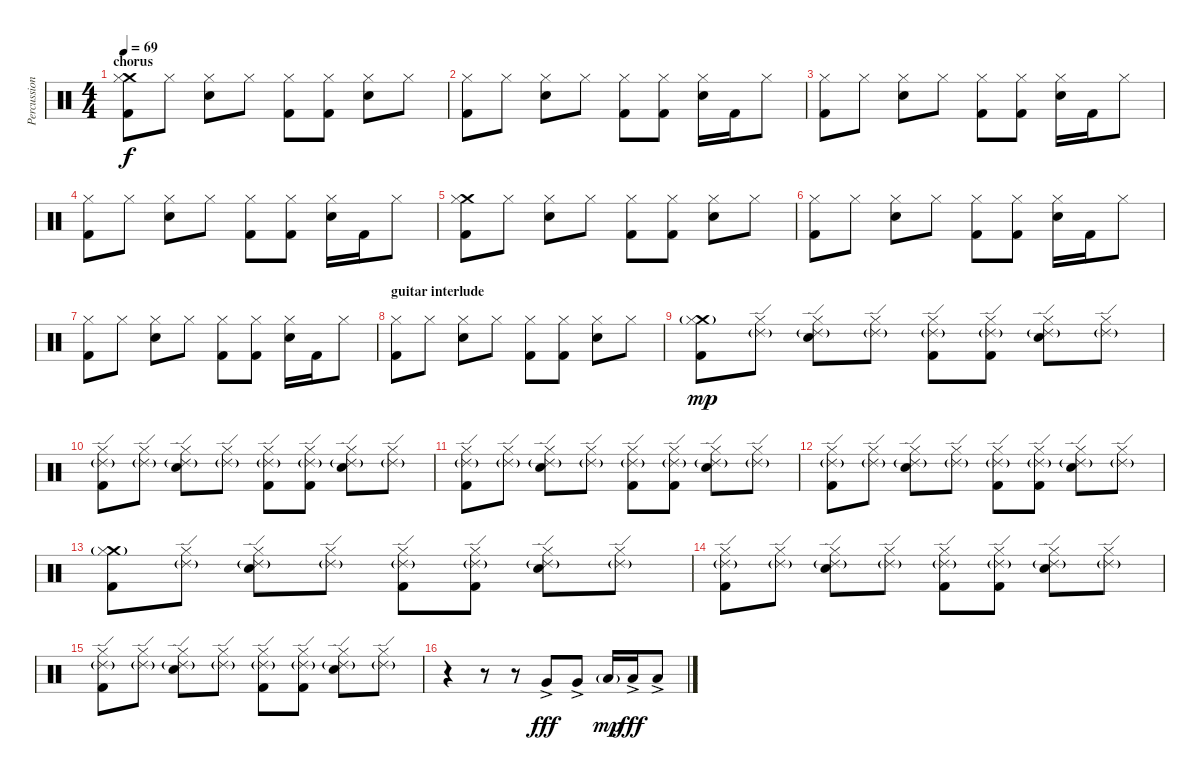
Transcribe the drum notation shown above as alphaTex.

\track ("Percussion" "Percussion") {instrument percussion}
\staff {score}
\articulation defaults
\ts (4 4)
\section ("" "chorus ")
\tempo 69
\clef neutral
\ks c
("Crash medium (hit)" "Hi-Hat (closed)" "Kick (hit) 2").8{dy f} "Hi-Hat (closed)".8 ("Hi-Hat (closed)" "Electric Snare (hit)").8 "Hi-Hat (closed)".8 ("Hi-Hat (closed)" "Kick (hit) 2").8 ("Hi-Hat (closed)" "Kick (hit) 2").8 ("Hi-Hat (closed)" "Electric Snare (hit)").8 "Hi-Hat (closed)".8 |
("Hi-Hat (closed)" "Kick (hit) 2").8 "Hi-Hat (closed)".8 ("Hi-Hat (closed)" "Electric Snare (hit)").8 "Hi-Hat (closed)".8 ("Hi-Hat (closed)" "Kick (hit) 2").8 ("Hi-Hat (closed)" "Kick (hit) 2").8 ("Hi-Hat (closed)" "Electric Snare (hit)").16 "Kick (hit) 2".16 "Hi-Hat (closed)".8 |
("Hi-Hat (closed)" "Kick (hit) 2").8 "Hi-Hat (closed)".8 ("Hi-Hat (closed)" "Electric Snare (hit)").8 "Hi-Hat (closed)".8 ("Hi-Hat (closed)" "Kick (hit) 2").8 ("Hi-Hat (closed)" "Kick (hit) 2").8 ("Hi-Hat (closed)" "Electric Snare (hit)").16 "Kick (hit) 2".16 "Hi-Hat (closed)".8 |
("Hi-Hat (closed)" "Kick (hit) 2").8 "Hi-Hat (closed)".8 ("Hi-Hat (closed)" "Electric Snare (hit)").8 "Hi-Hat (closed)".8 ("Hi-Hat (closed)" "Kick (hit) 2").8 ("Hi-Hat (closed)" "Kick (hit) 2").8 ("Hi-Hat (closed)" "Electric Snare (hit)").16 "Kick (hit) 2".16 "Hi-Hat (closed)".8 |
("Crash medium (hit)" "Hi-Hat (closed)" "Kick (hit) 2").8 "Hi-Hat (closed)".8 ("Hi-Hat (closed)" "Electric Snare (hit)").8 "Hi-Hat (closed)".8 ("Hi-Hat (closed)" "Kick (hit) 2").8 ("Hi-Hat (closed)" "Kick (hit) 2").8 ("Hi-Hat (closed)" "Electric Snare (hit)").8 "Hi-Hat (closed)".8 |
("Hi-Hat (closed)" "Kick (hit) 2").8 "Hi-Hat (closed)".8 ("Hi-Hat (closed)" "Electric Snare (hit)").8 "Hi-Hat (closed)".8 ("Hi-Hat (closed)" "Kick (hit) 2").8 ("Hi-Hat (closed)" "Kick (hit) 2").8 ("Hi-Hat (closed)" "Electric Snare (hit)").16 "Kick (hit) 2".16 "Hi-Hat (closed)".8 |
("Hi-Hat (closed)" "Kick (hit) 2").8 "Hi-Hat (closed)".8 ("Hi-Hat (closed)" "Electric Snare (hit)").8 "Hi-Hat (closed)".8 ("Hi-Hat (closed)" "Kick (hit) 2").8 ("Hi-Hat (closed)" "Kick (hit) 2").8 ("Hi-Hat (closed)" "Electric Snare (hit)").16 "Kick (hit) 2".16 "Hi-Hat (closed)".8 |
\section ("" "guitar interlude")
("Hi-Hat (closed)" "Kick (hit) 2").8 "Hi-Hat (closed)".8 ("Hi-Hat (closed)" "Electric Snare (hit)").8 "Hi-Hat (closed)".8 ("Hi-Hat (closed)" "Kick (hit) 2").8 ("Hi-Hat (closed)" "Kick (hit) 2").8 ("Hi-Hat (closed)" "Electric Snare (hit)").8 "Hi-Hat (closed)".8 |
("Crash medium (hit)"{g} "Hi-Hat (closed)" "Kick (hit) 2").8{dy mp} ("Ride (edge) 2"{g} "Hi-Hat (closed)").8 ("Ride (edge) 2"{g} "Hi-Hat (closed)" "Electric Snare (hit)").8 ("Ride (edge) 2"{g} "Hi-Hat (closed)").8 ("Ride (edge) 2"{g} "Hi-Hat (closed)" "Kick (hit) 2").8 ("Ride (edge) 2"{g} "Hi-Hat (closed)" "Kick (hit) 2").8 ("Ride (edge) 2"{g} "Hi-Hat (closed)" "Electric Snare (hit)").8 ("Ride (edge) 2"{g} "Hi-Hat (closed)").8 |
("Ride (edge) 2"{g} "Hi-Hat (closed)" "Kick (hit) 2").8 ("Ride (edge) 2"{g} "Hi-Hat (closed)").8 ("Ride (edge) 2"{g} "Hi-Hat (closed)" "Electric Snare (hit)").8 ("Ride (edge) 2"{g} "Hi-Hat (closed)").8 ("Ride (edge) 2"{g} "Hi-Hat (closed)" "Kick (hit) 2").8 ("Ride (edge) 2"{g} "Hi-Hat (closed)" "Kick (hit) 2").8 ("Ride (edge) 2"{g} "Hi-Hat (closed)" "Electric Snare (hit)").8 ("Ride (edge) 2"{g} "Hi-Hat (closed)").8 |
("Ride (edge) 2"{g} "Hi-Hat (closed)" "Kick (hit) 2").8 ("Ride (edge) 2"{g} "Hi-Hat (closed)").8 ("Ride (edge) 2"{g} "Hi-Hat (closed)" "Electric Snare (hit)").8 ("Ride (edge) 2"{g} "Hi-Hat (closed)").8 ("Ride (edge) 2"{g} "Hi-Hat (closed)" "Kick (hit) 2").8 ("Ride (edge) 2"{g} "Hi-Hat (closed)" "Kick (hit) 2").8 ("Ride (edge) 2"{g} "Hi-Hat (closed)" "Electric Snare (hit)").8 ("Ride (edge) 2"{g} "Hi-Hat (closed)").8 |
("Ride (edge) 2"{g} "Hi-Hat (closed)" "Kick (hit) 2").8 ("Ride (edge) 2"{g} "Hi-Hat (closed)").8 ("Ride (edge) 2"{g} "Hi-Hat (closed)" "Electric Snare (hit)").8 ("Ride (edge) 2"{g} "Hi-Hat (closed)").8 ("Ride (edge) 2"{g} "Hi-Hat (closed)" "Kick (hit) 2").8 ("Ride (edge) 2"{g} "Hi-Hat (closed)" "Kick (hit) 2").8 ("Ride (edge) 2"{g} "Hi-Hat (closed)" "Electric Snare (hit)").8 ("Ride (edge) 2"{g} "Hi-Hat (closed)").8 |
("Crash medium (hit)"{g} "Hi-Hat (closed)" "Kick (hit) 2").8 ("Ride (edge) 2"{g} "Hi-Hat (closed)").8 ("Ride (edge) 2"{g} "Hi-Hat (closed)" "Electric Snare (hit)").8 ("Ride (edge) 2"{g} "Hi-Hat (closed)").8 ("Ride (edge) 2"{g} "Hi-Hat (closed)" "Kick (hit) 2").8 ("Ride (edge) 2"{g} "Hi-Hat (closed)" "Kick (hit) 2").8 ("Ride (edge) 2"{g} "Hi-Hat (closed)" "Electric Snare (hit)").8 ("Ride (edge) 2"{g} "Hi-Hat (closed)").8 |
("Ride (edge) 2"{g} "Hi-Hat (closed)" "Kick (hit) 2").8 ("Ride (edge) 2"{g} "Hi-Hat (closed)").8 ("Ride (edge) 2"{g} "Hi-Hat (closed)" "Electric Snare (hit)").8 ("Ride (edge) 2"{g} "Hi-Hat (closed)").8 ("Ride (edge) 2"{g} "Hi-Hat (closed)" "Kick (hit) 2").8 ("Ride (edge) 2"{g} "Hi-Hat (closed)" "Kick (hit) 2").8 ("Ride (edge) 2"{g} "Hi-Hat (closed)" "Electric Snare (hit)").8 ("Ride (edge) 2"{g} "Hi-Hat (closed)").8 |
("Ride (edge) 2"{g} "Hi-Hat (closed)" "Kick (hit) 2").8 ("Ride (edge) 2"{g} "Hi-Hat (closed)").8 ("Ride (edge) 2"{g} "Hi-Hat (closed)" "Electric Snare (hit)").8 ("Ride (edge) 2"{g} "Hi-Hat (closed)").8 ("Ride (edge) 2"{g} "Hi-Hat (closed)" "Kick (hit) 2").8 ("Ride (edge) 2"{g} "Hi-Hat (closed)" "Kick (hit) 2").8 ("Ride (edge) 2"{g} "Hi-Hat (closed)" "Electric Snare (hit)").8 ("Ride (edge) 2"{g} "Hi-Hat (closed)").8 |
r.4 r.8 r.8 "Very Low Tom (hit)"{ac}.8{dy fff} "Very Low Tom (hit)"{ac}.8 "Low Floor Tom (hit)"{g}.16{dy mp} "Low Floor Tom (hit)"{ac}.16{dy fff} "Low Floor Tom (hit)"{ac}.8
